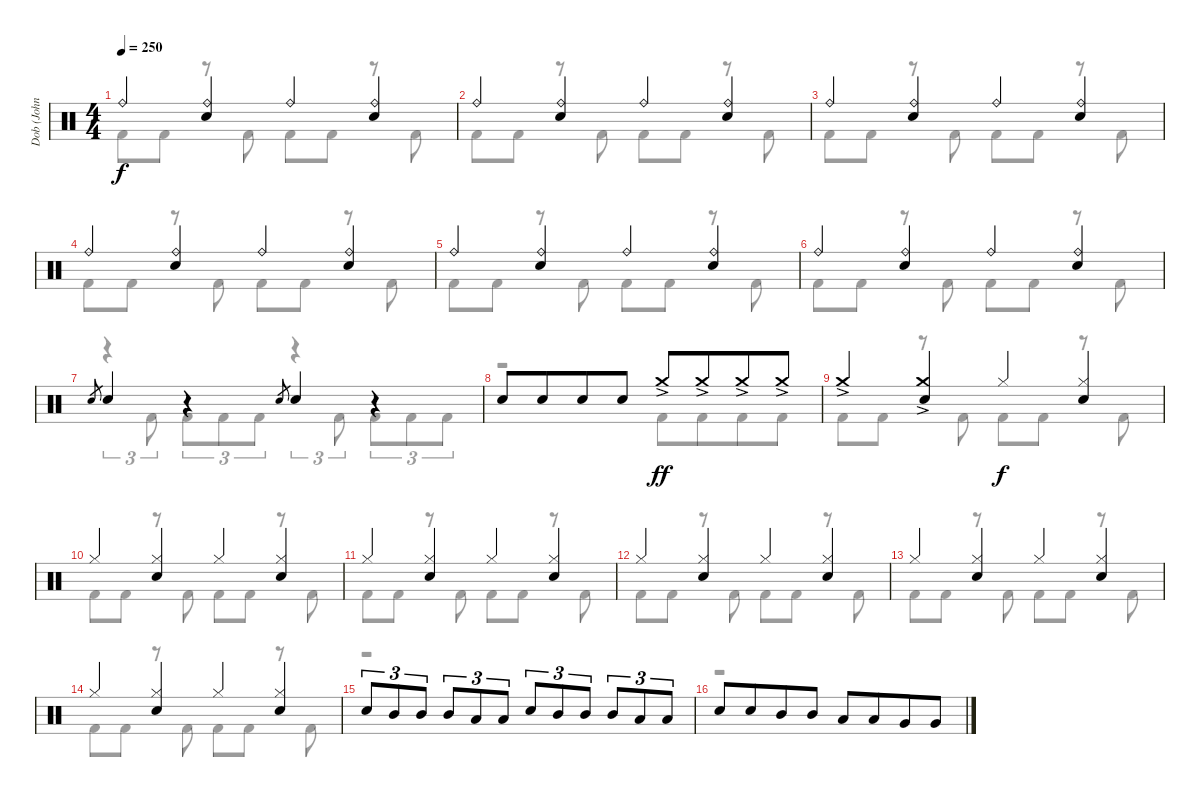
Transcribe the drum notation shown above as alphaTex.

\track ("Dob (John Macaluso)" "Dob (John ") {instrument percussion}
\staff {score}
\articulation defaults
\voice
\ts (4 4)
\tempo 250
\clef neutral
\ks c "Ride (bell)".4{dy f}
("Ride (bell)" "Electric Snare (hit)").4 "Ride (bell)".4 ("Ride (bell)" "Electric Snare (hit)").4 |
"Ride (bell)".4 ("Ride (bell)" "Electric Snare (hit)").4 "Ride (bell)".4 ("Ride (bell)" "Electric Snare (hit)").4 |
"Ride (bell)".4 ("Ride (bell)" "Electric Snare (hit)").4 "Ride (bell)".4 ("Ride (bell)" "Electric Snare (hit)").4 |
"Ride (bell)".4 ("Ride (bell)" "Electric Snare (hit)").4 "Ride (bell)".4 ("Ride (bell)" "Electric Snare (hit)").4 |
"Ride (bell)".4 ("Ride (bell)" "Electric Snare (hit)").4 "Ride (bell)".4 ("Ride (bell)" "Electric Snare (hit)").4 |
"Ride (bell)".4 ("Ride (bell)" "Electric Snare (hit)").4 "Ride (bell)".4 ("Ride (bell)" "Electric Snare (hit)").4 |
"Electric Snare (hit)".8{gr} "Electric Snare (hit)".4 r.4 "Electric Snare (hit)".8{gr} "Electric Snare (hit)".4 r.4 |
"Electric Snare (hit)".8 "Electric Snare (hit)".8{beam merge} "Electric Snare (hit)".8 "Electric Snare (hit)".8 "Crash medium (hit)"{ac}.8{dy ff} "Crash medium (hit)"{ac}.8{beam merge} "Crash medium (hit)"{ac}.8 "Crash medium (hit)"{ac}.8 |
"Crash medium (hit)"{ac}.4 ("Crash medium (hit)"{ac} "Electric Snare (hit)").4 "Hi-Hat (closed)".4{dy f} ("Hi-Hat (closed)" "Electric Snare (hit)").4 |
"Hi-Hat (closed)".4 ("Hi-Hat (closed)" "Electric Snare (hit)").4 "Hi-Hat (closed)".4 ("Hi-Hat (closed)" "Electric Snare (hit)").4 |
"Hi-Hat (closed)".4 ("Hi-Hat (closed)" "Electric Snare (hit)").4 "Hi-Hat (closed)".4 ("Hi-Hat (closed)" "Electric Snare (hit)").4 |
"Hi-Hat (closed)".4 ("Hi-Hat (closed)" "Electric Snare (hit)").4 "Hi-Hat (closed)".4 ("Hi-Hat (closed)" "Electric Snare (hit)").4 |
"Hi-Hat (closed)".4 ("Hi-Hat (closed)" "Electric Snare (hit)").4 "Hi-Hat (closed)".4 ("Hi-Hat (closed)" "Electric Snare (hit)").4 |
"Hi-Hat (closed)".4 ("Hi-Hat (closed)" "Electric Snare (hit)").4 "Hi-Hat (closed)".4 ("Hi-Hat (closed)" "Electric Snare (hit)").4 |
"Electric Snare (hit)".8{tu (3 2)} "Mid Tom (hit)".8{tu (3 2)} "Mid Tom (hit)".8{tu (3 2)} "Mid Tom (hit)".8{tu (3 2)} "Low Tom (hit)".8{tu (3 2)} "Low Tom (hit)".8{tu (3 2)} "Electric Snare (hit)".8{tu (3 2)} "Mid Tom (hit)".8{tu (3 2)} "Mid Tom (hit)".8{tu (3 2)} "Mid Tom (hit)".8{tu (3 2)} "Low Tom (hit)".8{tu (3 2)} "Low Tom (hit)".8{tu (3 2)} |
"Electric Snare (hit)".8 "Electric Snare (hit)".8{beam merge} "Mid Tom (hit)".8 "Mid Tom (hit)".8 "Low Tom (hit)".8 "Low Tom (hit)".8{beam merge} "Very Low Tom (hit)".8 "Very Low Tom (hit)".8
\voice
\clef neutral
\ottava regular
\simile none
\ks c "Kick (hit) 2".8{dy f} "Kick (hit) 2".8
r.8 "Kick (hit) 2".8 "Kick (hit) 2".8 "Kick (hit) 2".8 r.8 "Kick (hit) 2".8 |
"Kick (hit) 2".8 "Kick (hit) 2".8 r.8 "Kick (hit) 2".8 "Kick (hit) 2".8 "Kick (hit) 2".8 r.8 "Kick (hit) 2".8 |
"Kick (hit) 2".8 "Kick (hit) 2".8 r.8 "Kick (hit) 2".8 "Kick (hit) 2".8 "Kick (hit) 2".8 r.8 "Kick (hit) 2".8 |
"Kick (hit) 2".8 "Kick (hit) 2".8 r.8 "Kick (hit) 2".8 "Kick (hit) 2".8 "Kick (hit) 2".8 r.8 "Kick (hit) 2".8 |
"Kick (hit) 2".8 "Kick (hit) 2".8 r.8 "Kick (hit) 2".8 "Kick (hit) 2".8 "Kick (hit) 2".8 r.8 "Kick (hit) 2".8 |
"Kick (hit) 2".8 "Kick (hit) 2".8 r.8 "Kick (hit) 2".8 "Kick (hit) 2".8 "Kick (hit) 2".8 r.8 "Kick (hit) 2".8 |
r.4{tu (3 2)} "Kick (hit) 2".8{tu (3 2)} "Kick (hit) 2".8{tu (3 2)} "Kick (hit) 2".8{tu (3 2)} "Kick (hit) 2".8{tu (3 2)} r.4{tu (3 2)} "Kick (hit) 2".8{tu (3 2)} "Kick (hit) 2".8{tu (3 2)} "Kick (hit) 2".8{tu (3 2)} "Kick (hit) 2".8{tu (3 2)} |
r.2 "Kick (hit) 2".8 "Kick (hit) 2".8{beam merge} "Kick (hit) 2".8 "Kick (hit) 2".8 |
"Kick (hit) 2".8 "Kick (hit) 2".8 r.8 "Kick (hit) 2".8 "Kick (hit) 2".8 "Kick (hit) 2".8 r.8 "Kick (hit) 2".8 |
"Kick (hit) 2".8 "Kick (hit) 2".8 r.8 "Kick (hit) 2".8 "Kick (hit) 2".8 "Kick (hit) 2".8 r.8 "Kick (hit) 2".8 |
"Kick (hit) 2".8 "Kick (hit) 2".8 r.8 "Kick (hit) 2".8 "Kick (hit) 2".8 "Kick (hit) 2".8 r.8 "Kick (hit) 2".8 |
"Kick (hit) 2".8 "Kick (hit) 2".8 r.8 "Kick (hit) 2".8 "Kick (hit) 2".8 "Kick (hit) 2".8 r.8 "Kick (hit) 2".8 |
"Kick (hit) 2".8 "Kick (hit) 2".8 r.8 "Kick (hit) 2".8 "Kick (hit) 2".8 "Kick (hit) 2".8 r.8 "Kick (hit) 2".8 |
"Kick (hit) 2".8 "Kick (hit) 2".8 r.8 "Kick (hit) 2".8 "Kick (hit) 2".8 "Kick (hit) 2".8 r.8 "Kick (hit) 2".8 |
r.1 |
r.1
